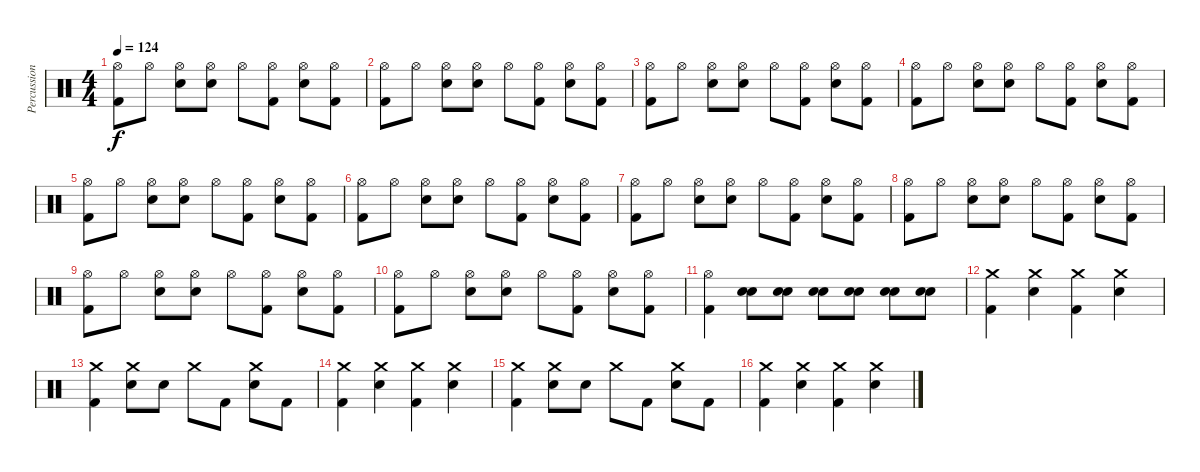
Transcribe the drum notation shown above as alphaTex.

\track ("Percussion" "Percussion") {instrument percussion}
\staff {score}
\articulation defaults
\ts (4 4)
\tempo 124
\clef neutral
\ks c
("Hi-Hat (open)" "Kick (hit) 2").8{dy f} "Hi-Hat (open)".8 ("Hi-Hat (open)" "Snare (hit) 2").8 ("Hi-Hat (open)" "Snare (hit) 2").8 "Hi-Hat (open)".8 ("Hi-Hat (open)" "Kick (hit) 2").8 ("Hi-Hat (open)" "Snare (hit) 2").8 ("Hi-Hat (open)" "Kick (hit) 2").8 |
("Hi-Hat (open)" "Kick (hit) 2").8 "Hi-Hat (open)".8 ("Hi-Hat (open)" "Snare (hit) 2").8 ("Hi-Hat (open)" "Snare (hit) 2").8 "Hi-Hat (open)".8 ("Hi-Hat (open)" "Kick (hit) 2").8 ("Hi-Hat (open)" "Snare (hit) 2").8 ("Hi-Hat (open)" "Kick (hit) 2").8 |
("Hi-Hat (open)" "Kick (hit) 2").8 "Hi-Hat (open)".8 ("Hi-Hat (open)" "Snare (hit) 2").8 ("Hi-Hat (open)" "Snare (hit) 2").8 "Hi-Hat (open)".8 ("Hi-Hat (open)" "Kick (hit) 2").8 ("Hi-Hat (open)" "Snare (hit) 2").8 ("Hi-Hat (open)" "Kick (hit) 2").8 |
("Hi-Hat (open)" "Kick (hit) 2").8 "Hi-Hat (open)".8 ("Hi-Hat (open)" "Snare (hit) 2").8 ("Hi-Hat (open)" "Snare (hit) 2").8 "Hi-Hat (open)".8 ("Hi-Hat (open)" "Kick (hit) 2").8 ("Hi-Hat (open)" "Snare (hit) 2").8 ("Hi-Hat (open)" "Kick (hit) 2").8 |
("Hi-Hat (open)" "Kick (hit) 2").8 "Hi-Hat (open)".8 ("Hi-Hat (open)" "Snare (hit) 2").8 ("Hi-Hat (open)" "Snare (hit) 2").8 "Hi-Hat (open)".8 ("Hi-Hat (open)" "Kick (hit) 2").8 ("Hi-Hat (open)" "Snare (hit) 2").8 ("Hi-Hat (open)" "Kick (hit) 2").8 |
("Hi-Hat (open)" "Kick (hit) 2").8 "Hi-Hat (open)".8 ("Hi-Hat (open)" "Snare (hit) 2").8 ("Hi-Hat (open)" "Snare (hit) 2").8 "Hi-Hat (open)".8 ("Hi-Hat (open)" "Kick (hit) 2").8 ("Hi-Hat (open)" "Snare (hit) 2").8 ("Hi-Hat (open)" "Kick (hit) 2").8 |
("Hi-Hat (open)" "Kick (hit) 2").8 "Hi-Hat (open)".8 ("Hi-Hat (open)" "Snare (hit) 2").8 ("Hi-Hat (open)" "Snare (hit) 2").8 "Hi-Hat (open)".8 ("Hi-Hat (open)" "Kick (hit) 2").8 ("Hi-Hat (open)" "Snare (hit) 2").8 ("Hi-Hat (open)" "Kick (hit) 2").8 |
("Hi-Hat (open)" "Kick (hit) 2").8 "Hi-Hat (open)".8 ("Hi-Hat (open)" "Snare (hit) 2").8 ("Hi-Hat (open)" "Snare (hit) 2").8 "Hi-Hat (open)".8 ("Hi-Hat (open)" "Kick (hit) 2").8 ("Hi-Hat (open)" "Snare (hit) 2").8 ("Hi-Hat (open)" "Kick (hit) 2").8 |
("Hi-Hat (open)" "Kick (hit) 2").8 "Hi-Hat (open)".8 ("Hi-Hat (open)" "Snare (hit) 2").8 ("Hi-Hat (open)" "Snare (hit) 2").8 "Hi-Hat (open)".8 ("Hi-Hat (open)" "Kick (hit) 2").8 ("Hi-Hat (open)" "Snare (hit) 2").8 ("Hi-Hat (open)" "Kick (hit) 2").8 |
("Hi-Hat (open)" "Kick (hit) 2").8 "Hi-Hat (open)".8 ("Hi-Hat (open)" "Snare (hit) 2").8 ("Hi-Hat (open)" "Snare (hit) 2").8 "Hi-Hat (open)".8 ("Hi-Hat (open)" "Kick (hit) 2").8 ("Hi-Hat (open)" "Snare (hit) 2").8 ("Hi-Hat (open)" "Kick (hit) 2").8 |
("Hi-Hat (open)" "Kick (hit) 2").4 ("Snare (hit) 2" "Snare (hit) 2").8 ("Snare (hit) 2" "Snare (hit) 2").8 ("Snare (hit) 2" "Snare (hit) 2").8 ("Snare (hit) 2" "Snare (hit) 2").8 ("Snare (hit) 2" "Snare (hit) 2").8 ("Snare (hit) 2" "Snare (hit) 2").8 |
("Crash medium (hit)" "Kick (hit) 2").4 ("Crash medium (hit)" "Snare (hit) 2").4 ("Crash medium (hit)" "Kick (hit) 2").4 ("Crash medium (hit)" "Snare (hit) 2").4 |
("Crash medium (hit)" "Kick (hit) 2").4 ("Crash medium (hit)" "Snare (hit) 2").8 "Snare (hit) 2".8 "Crash medium (hit)".8 "Kick (hit) 2".8 ("Crash medium (hit)" "Snare (hit) 2").8 "Kick (hit) 2".8 |
("Crash medium (hit)" "Kick (hit) 2").4 ("Crash medium (hit)" "Snare (hit) 2").4 ("Crash medium (hit)" "Kick (hit) 2").4 ("Crash medium (hit)" "Snare (hit) 2").4 |
("Crash medium (hit)" "Kick (hit) 2").4 ("Crash medium (hit)" "Snare (hit) 2").8 "Snare (hit) 2".8 "Crash medium (hit)".8 "Kick (hit) 2".8 ("Crash medium (hit)" "Snare (hit) 2").8 "Kick (hit) 2".8 |
("Crash medium (hit)" "Kick (hit) 2").4 ("Crash medium (hit)" "Snare (hit) 2").4 ("Crash medium (hit)" "Kick (hit) 2").4 ("Crash medium (hit)" "Snare (hit) 2").4
